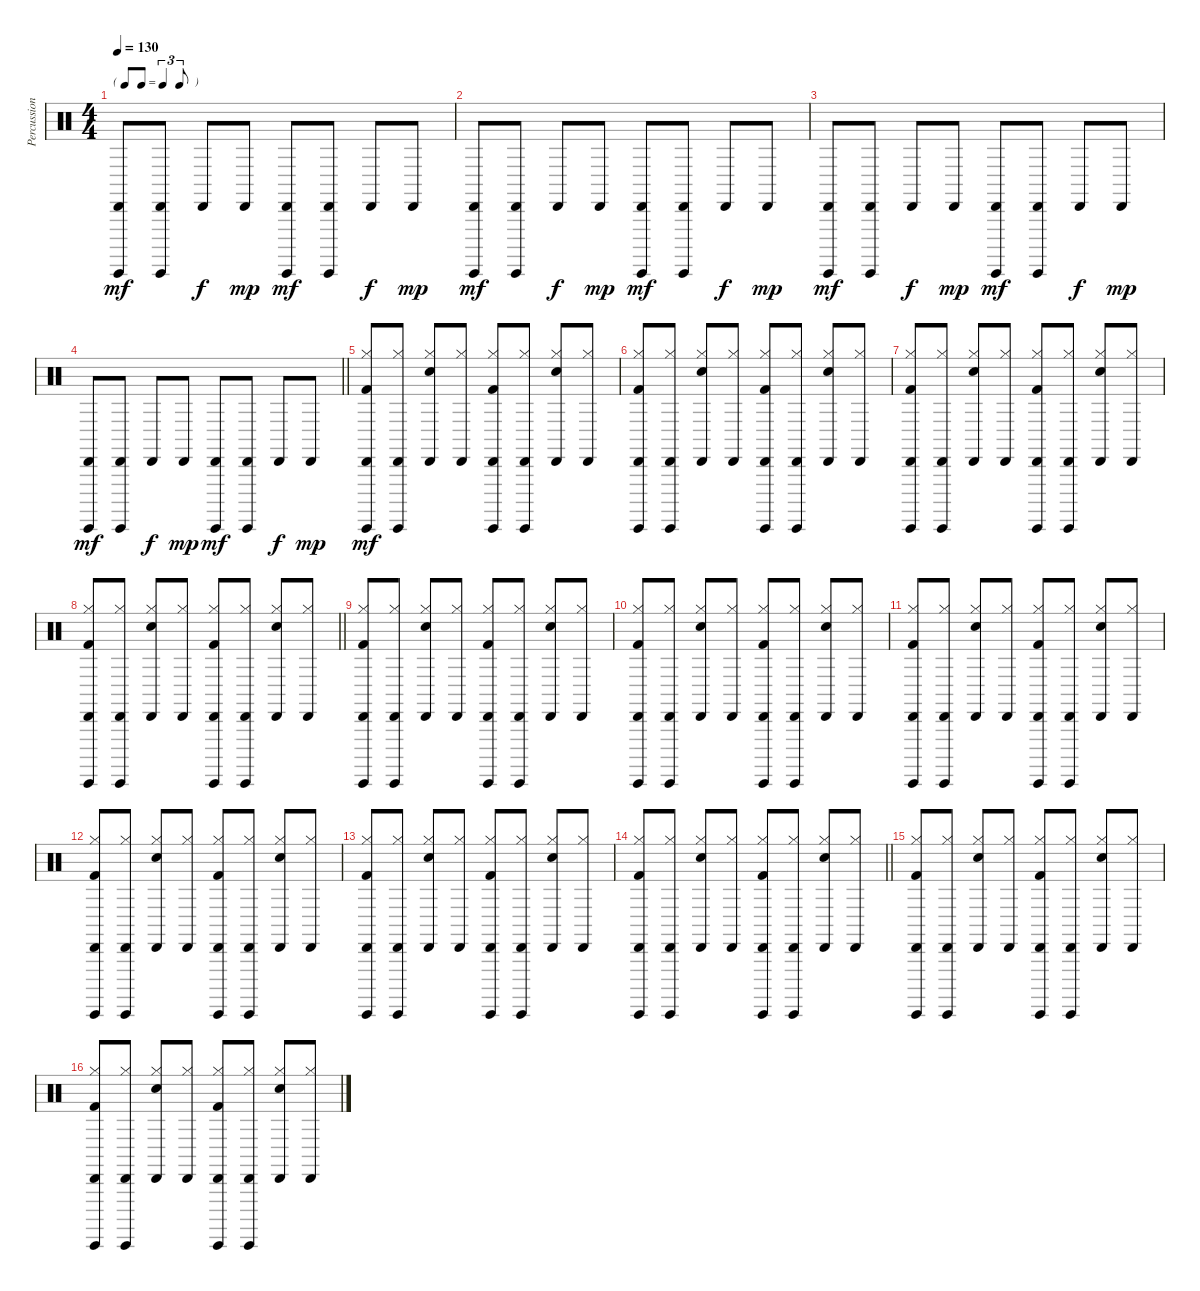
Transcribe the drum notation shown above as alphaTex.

\track ("Percussion" "Percussion") {instrument percussion}
\staff {score}
\articulation defaults
\ts (4 4)
\tf triplet8th
\tempo 130
\clef neutral
\ks c
("Cabasa (hit)" "Guiro (hit)").8{dy mf} ("Cabasa (hit)" "Guiro (hit)").8 "Cabasa (hit)".8{dy f} "Cabasa (hit)".8{dy mp} ("Cabasa (hit)" "Guiro (hit)").8{dy mf} ("Cabasa (hit)" "Guiro (hit)").8 "Cabasa (hit)".8{dy f} "Cabasa (hit)".8{dy mp} |
("Cabasa (hit)" "Guiro (hit)").8{dy mf} ("Cabasa (hit)" "Guiro (hit)").8 "Cabasa (hit)".8{dy f} "Cabasa (hit)".8{dy mp} ("Cabasa (hit)" "Guiro (hit)").8{dy mf} ("Cabasa (hit)" "Guiro (hit)").8 "Cabasa (hit)".8{dy f} "Cabasa (hit)".8{dy mp} |
("Cabasa (hit)" "Guiro (hit)").8{dy mf} ("Cabasa (hit)" "Guiro (hit)").8 "Cabasa (hit)".8{dy f} "Cabasa (hit)".8{dy mp} ("Cabasa (hit)" "Guiro (hit)").8{dy mf} ("Cabasa (hit)" "Guiro (hit)").8 "Cabasa (hit)".8{dy f} "Cabasa (hit)".8{dy mp} |
\barLineRight lightlight
("Cabasa (hit)" "Guiro (hit)").8{dy mf} ("Cabasa (hit)" "Guiro (hit)").8 "Cabasa (hit)".8{dy f} "Cabasa (hit)".8{dy mp} ("Cabasa (hit)" "Guiro (hit)").8{dy mf} ("Cabasa (hit)" "Guiro (hit)").8 "Cabasa (hit)".8{dy f} "Cabasa (hit)".8{dy mp} |
("Cabasa (hit)" "Guiro (hit)" "Hi-Hat (closed)" "Kick (hit) 2").8{dy mf} ("Cabasa (hit)" "Guiro (hit)" "Hi-Hat (closed)").8 ("Cabasa (hit)" "Hi-Hat (closed)" "Electric Snare (hit)").8 ("Cabasa (hit)" "Hi-Hat (closed)").8 ("Cabasa (hit)" "Guiro (hit)" "Hi-Hat (closed)" "Kick (hit) 2").8 ("Cabasa (hit)" "Guiro (hit)" "Hi-Hat (closed)").8 ("Cabasa (hit)" "Hi-Hat (closed)" "Electric Snare (hit)").8 ("Cabasa (hit)" "Hi-Hat (closed)").8 |
("Cabasa (hit)" "Guiro (hit)" "Hi-Hat (closed)" "Kick (hit) 2").8 ("Cabasa (hit)" "Guiro (hit)" "Hi-Hat (closed)").8 ("Cabasa (hit)" "Hi-Hat (closed)" "Electric Snare (hit)").8 ("Cabasa (hit)" "Hi-Hat (closed)").8 ("Cabasa (hit)" "Guiro (hit)" "Hi-Hat (closed)" "Kick (hit) 2").8 ("Cabasa (hit)" "Guiro (hit)" "Hi-Hat (closed)").8 ("Cabasa (hit)" "Hi-Hat (closed)" "Electric Snare (hit)").8 ("Cabasa (hit)" "Hi-Hat (closed)").8 |
("Cabasa (hit)" "Guiro (hit)" "Hi-Hat (closed)" "Kick (hit) 2").8 ("Cabasa (hit)" "Guiro (hit)" "Hi-Hat (closed)").8 ("Cabasa (hit)" "Hi-Hat (closed)" "Electric Snare (hit)").8 ("Cabasa (hit)" "Hi-Hat (closed)").8 ("Cabasa (hit)" "Guiro (hit)" "Hi-Hat (closed)" "Kick (hit) 2").8 ("Cabasa (hit)" "Guiro (hit)" "Hi-Hat (closed)").8 ("Cabasa (hit)" "Hi-Hat (closed)" "Electric Snare (hit)").8 ("Cabasa (hit)" "Hi-Hat (closed)").8 |
\barLineRight lightlight
("Cabasa (hit)" "Guiro (hit)" "Hi-Hat (closed)" "Kick (hit) 2").8 ("Cabasa (hit)" "Guiro (hit)" "Hi-Hat (closed)").8 ("Cabasa (hit)" "Hi-Hat (closed)" "Electric Snare (hit)").8 ("Cabasa (hit)" "Hi-Hat (closed)").8 ("Cabasa (hit)" "Guiro (hit)" "Hi-Hat (closed)" "Kick (hit) 2").8 ("Cabasa (hit)" "Guiro (hit)" "Hi-Hat (closed)").8 ("Cabasa (hit)" "Hi-Hat (closed)" "Electric Snare (hit)").8 ("Cabasa (hit)" "Hi-Hat (closed)").8 |
("Cabasa (hit)" "Guiro (hit)" "Hi-Hat (closed)" "Kick (hit) 2").8 ("Cabasa (hit)" "Guiro (hit)" "Hi-Hat (closed)").8 ("Cabasa (hit)" "Hi-Hat (closed)" "Electric Snare (hit)").8 ("Cabasa (hit)" "Hi-Hat (closed)").8 ("Cabasa (hit)" "Guiro (hit)" "Hi-Hat (closed)" "Kick (hit) 2").8 ("Cabasa (hit)" "Guiro (hit)" "Hi-Hat (closed)").8 ("Cabasa (hit)" "Hi-Hat (closed)" "Electric Snare (hit)").8 ("Cabasa (hit)" "Hi-Hat (closed)").8 |
("Cabasa (hit)" "Guiro (hit)" "Hi-Hat (closed)" "Kick (hit) 2").8 ("Cabasa (hit)" "Guiro (hit)" "Hi-Hat (closed)").8 ("Cabasa (hit)" "Hi-Hat (closed)" "Electric Snare (hit)").8 ("Cabasa (hit)" "Hi-Hat (closed)").8 ("Cabasa (hit)" "Guiro (hit)" "Hi-Hat (closed)" "Kick (hit) 2").8 ("Cabasa (hit)" "Guiro (hit)" "Hi-Hat (closed)").8 ("Cabasa (hit)" "Hi-Hat (closed)" "Electric Snare (hit)").8 ("Cabasa (hit)" "Hi-Hat (closed)").8 |
("Cabasa (hit)" "Guiro (hit)" "Hi-Hat (closed)" "Kick (hit) 2").8 ("Cabasa (hit)" "Guiro (hit)" "Hi-Hat (closed)").8 ("Cabasa (hit)" "Hi-Hat (closed)" "Electric Snare (hit)").8 ("Cabasa (hit)" "Hi-Hat (closed)").8 ("Cabasa (hit)" "Guiro (hit)" "Hi-Hat (closed)" "Kick (hit) 2").8 ("Cabasa (hit)" "Guiro (hit)" "Hi-Hat (closed)").8 ("Cabasa (hit)" "Hi-Hat (closed)" "Electric Snare (hit)").8 ("Cabasa (hit)" "Hi-Hat (closed)").8 |
("Cabasa (hit)" "Guiro (hit)" "Hi-Hat (closed)" "Kick (hit) 2").8 ("Cabasa (hit)" "Guiro (hit)" "Hi-Hat (closed)").8 ("Cabasa (hit)" "Hi-Hat (closed)" "Electric Snare (hit)").8 ("Cabasa (hit)" "Hi-Hat (closed)").8 ("Cabasa (hit)" "Guiro (hit)" "Hi-Hat (closed)" "Kick (hit) 2").8 ("Cabasa (hit)" "Guiro (hit)" "Hi-Hat (closed)").8 ("Cabasa (hit)" "Hi-Hat (closed)" "Electric Snare (hit)").8 ("Cabasa (hit)" "Hi-Hat (closed)").8 |
("Cabasa (hit)" "Guiro (hit)" "Hi-Hat (closed)" "Kick (hit) 2").8 ("Cabasa (hit)" "Guiro (hit)" "Hi-Hat (closed)").8 ("Cabasa (hit)" "Hi-Hat (closed)" "Electric Snare (hit)").8 ("Cabasa (hit)" "Hi-Hat (closed)").8 ("Cabasa (hit)" "Guiro (hit)" "Hi-Hat (closed)" "Kick (hit) 2").8 ("Cabasa (hit)" "Guiro (hit)" "Hi-Hat (closed)").8 ("Cabasa (hit)" "Hi-Hat (closed)" "Electric Snare (hit)").8 ("Cabasa (hit)" "Hi-Hat (closed)").8 |
\barLineRight lightlight
("Cabasa (hit)" "Guiro (hit)" "Hi-Hat (closed)" "Kick (hit) 2").8 ("Cabasa (hit)" "Guiro (hit)" "Hi-Hat (closed)").8 ("Cabasa (hit)" "Hi-Hat (closed)" "Electric Snare (hit)").8 ("Cabasa (hit)" "Hi-Hat (closed)").8 ("Cabasa (hit)" "Guiro (hit)" "Hi-Hat (closed)" "Kick (hit) 2").8 ("Cabasa (hit)" "Guiro (hit)" "Hi-Hat (closed)").8 ("Cabasa (hit)" "Hi-Hat (closed)" "Electric Snare (hit)").8 ("Cabasa (hit)" "Hi-Hat (closed)").8 |
("Cabasa (hit)" "Guiro (hit)" "Hi-Hat (closed)" "Kick (hit) 2").8 ("Cabasa (hit)" "Guiro (hit)" "Hi-Hat (closed)").8 ("Cabasa (hit)" "Hi-Hat (closed)" "Electric Snare (hit)").8 ("Cabasa (hit)" "Hi-Hat (closed)").8 ("Cabasa (hit)" "Guiro (hit)" "Hi-Hat (closed)" "Kick (hit) 2").8 ("Cabasa (hit)" "Guiro (hit)" "Hi-Hat (closed)").8 ("Cabasa (hit)" "Hi-Hat (closed)" "Electric Snare (hit)").8 ("Cabasa (hit)" "Hi-Hat (closed)").8 |
("Cabasa (hit)" "Guiro (hit)" "Hi-Hat (closed)" "Kick (hit) 2").8 ("Cabasa (hit)" "Guiro (hit)" "Hi-Hat (closed)").8 ("Cabasa (hit)" "Hi-Hat (closed)" "Electric Snare (hit)").8 ("Cabasa (hit)" "Hi-Hat (closed)").8 ("Cabasa (hit)" "Guiro (hit)" "Hi-Hat (closed)" "Kick (hit) 2").8 ("Cabasa (hit)" "Guiro (hit)" "Hi-Hat (closed)").8 ("Cabasa (hit)" "Hi-Hat (closed)" "Electric Snare (hit)").8 ("Cabasa (hit)" "Hi-Hat (closed)").8
